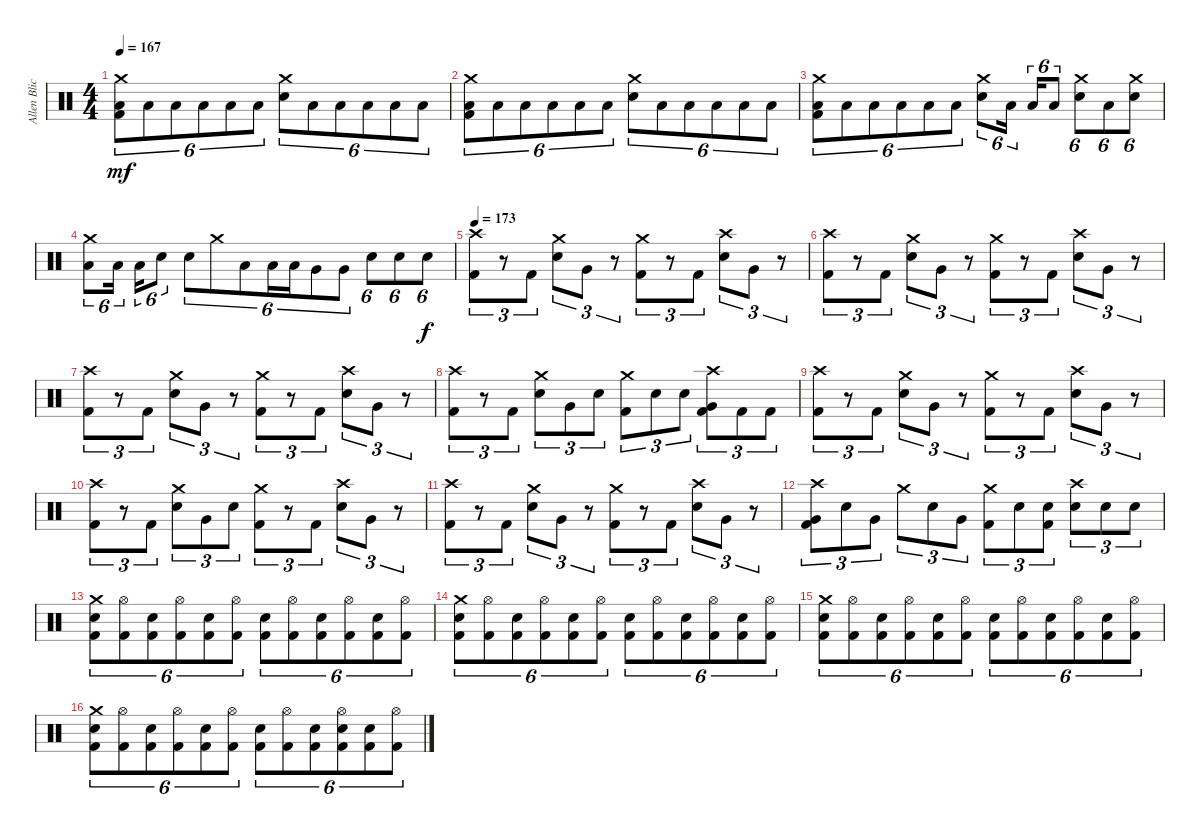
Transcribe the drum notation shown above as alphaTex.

\track ("Allen Blickle" "Allen Blic") {instrument percussion}
\staff {score}
\articulation defaults
\ts (4 4)
\tempo 167
\clef neutral
\ks c
("Low Floor Tom (hit)" "Kick (hit) 2" "Crash medium (hit)").8{tu (6 4) dy mf} "Low Floor Tom (hit)".8{tu (6 4)} "Low Floor Tom (hit)".8{tu (6 4)} "Low Floor Tom (hit)".8{tu (6 4)} "Low Floor Tom (hit)".8{tu (6 4)} "Low Floor Tom (hit)".8{tu (6 4)} ("Electric Snare (hit)" "Crash medium (hit)").8{tu (6 4)} "Low Floor Tom (hit)".8{tu (6 4)} "Low Floor Tom (hit)".8{tu (6 4)} "Low Floor Tom (hit)".8{tu (6 4)} "Low Floor Tom (hit)".8{tu (6 4)} "Low Floor Tom (hit)".8{tu (6 4)} |
("Low Floor Tom (hit)" "Kick (hit) 2" "Crash medium (hit)").8{tu (6 4)} "Low Floor Tom (hit)".8{tu (6 4)} "Low Floor Tom (hit)".8{tu (6 4)} "Low Floor Tom (hit)".8{tu (6 4)} "Low Floor Tom (hit)".8{tu (6 4)} "Low Floor Tom (hit)".8{tu (6 4)} ("Electric Snare (hit)" "Crash medium (hit)").8{tu (6 4)} "Low Floor Tom (hit)".8{tu (6 4)} "Low Floor Tom (hit)".8{tu (6 4)} "Low Floor Tom (hit)".8{tu (6 4)} "Low Floor Tom (hit)".8{tu (6 4)} "Low Floor Tom (hit)".8{tu (6 4)} |
("Low Floor Tom (hit)" "Kick (hit) 2" "Crash medium (hit)").8{tu (6 4)} "Low Floor Tom (hit)".8{tu (6 4)} "Low Floor Tom (hit)".8{tu (6 4)} "Low Floor Tom (hit)".8{tu (6 4)} "Low Floor Tom (hit)".8{tu (6 4)} "Low Floor Tom (hit)".8{tu (6 4)} ("Electric Snare (hit)" "Crash medium (hit)").8{tu (6 4)} "Low Floor Tom (hit)".16{tu (6 4) beam splitsecondary} "Low Floor Tom (hit)".16{tu (6 4)} "Low Floor Tom (hit)".8{tu (6 4)} ("Electric Snare (hit)" "Crash medium (hit)").8{tu (6 4)} "Low Floor Tom (hit)".8{tu (6 4)} ("Electric Snare (hit)" "Crash medium (hit)").8{tu (6 4)} |
("Low Floor Tom (hit)" "Crash medium (hit)").8{tu (6 4)} "Low Floor Tom (hit)".16{tu (6 4) beam splitsecondary} "Low Floor Tom (hit)".16{tu (6 4)} "Electric Snare (hit)".8{tu (6 4)} "Electric Snare (hit)".8{tu (6 4)} "Crash medium (hit)".8{tu (6 4)} "Low Tom (hit)".8{tu (6 4)} "Low Tom (hit)".16{tu (6 4)} "Low Tom (hit)".16{tu (6 4)} "Very Low Tom (hit)".8{tu (6 4)} "Very Low Tom (hit)".8{tu (6 4)} "Electric Snare (hit)".8{tu (6 4)} "Electric Snare (hit)".8{tu (6 4)} "Electric Snare (hit)".8{tu (6 4) dy f} |
\tempo 173
("Crash high (hit)" "Kick (hit) 2").8{tu (3 2)} r.8{tu (3 2)} "Kick (hit) 2".8{tu (3 2)} ("Electric Snare (hit)" "Crash medium (hit)").8{tu (3 2)} "Very Low Tom (hit)".8{tu (3 2)} r.8{tu (3 2)} ("Crash medium (hit)" "Kick (hit) 2").8{tu (3 2)} r.8{tu (3 2)} "Kick (hit) 2".8{tu (3 2)} ("Electric Snare (hit)" "Crash high (hit)").8{tu (3 2)} "Very Low Tom (hit)".8{tu (3 2)} r.8{tu (3 2)} |
("Crash high (hit)" "Kick (hit) 2").8{tu (3 2)} r.8{tu (3 2)} "Kick (hit) 2".8{tu (3 2)} ("Electric Snare (hit)" "Crash medium (hit)").8{tu (3 2)} "Very Low Tom (hit)".8{tu (3 2)} r.8{tu (3 2)} ("Crash medium (hit)" "Kick (hit) 2").8{tu (3 2)} r.8{tu (3 2)} "Kick (hit) 2".8{tu (3 2)} ("Electric Snare (hit)" "Crash high (hit)").8{tu (3 2)} "Very Low Tom (hit)".8{tu (3 2)} r.8{tu (3 2)} |
("Crash high (hit)" "Kick (hit) 2").8{tu (3 2)} r.8{tu (3 2)} "Kick (hit) 2".8{tu (3 2)} ("Electric Snare (hit)" "Crash medium (hit)").8{tu (3 2)} "Very Low Tom (hit)".8{tu (3 2)} r.8{tu (3 2)} ("Crash medium (hit)" "Kick (hit) 2").8{tu (3 2)} r.8{tu (3 2)} "Kick (hit) 2".8{tu (3 2)} ("Electric Snare (hit)" "Crash high (hit)").8{tu (3 2)} "Very Low Tom (hit)".8{tu (3 2)} r.8{tu (3 2)} |
("Crash high (hit)" "Kick (hit) 2").8{tu (3 2)} r.8{tu (3 2)} "Kick (hit) 2".8{tu (3 2)} ("Electric Snare (hit)" "Crash medium (hit)").8{tu (3 2)} "Very Low Tom (hit)".8{tu (3 2)} "Electric Snare (hit)".8{tu (3 2)} ("Crash medium (hit)" "Kick (hit) 2").8{tu (3 2)} "Electric Snare (hit)".8{tu (3 2)} "Electric Snare (hit)".8{tu (3 2)} ("Very Low Tom (hit)" "Kick (hit) 2" "Crash high (hit)").8{tu (3 2)} "Kick (hit) 2".8{tu (3 2)} "Kick (hit) 2".8{tu (3 2)} |
("Crash high (hit)" "Kick (hit) 2").8{tu (3 2)} r.8{tu (3 2)} "Kick (hit) 2".8{tu (3 2)} ("Electric Snare (hit)" "Crash medium (hit)").8{tu (3 2)} "Very Low Tom (hit)".8{tu (3 2)} r.8{tu (3 2)} ("Crash medium (hit)" "Kick (hit) 2").8{tu (3 2)} r.8{tu (3 2)} "Kick (hit) 2".8{tu (3 2)} ("Electric Snare (hit)" "Crash high (hit)").8{tu (3 2)} "Very Low Tom (hit)".8{tu (3 2)} r.8{tu (3 2)} |
("Crash high (hit)" "Kick (hit) 2").8{tu (3 2)} r.8{tu (3 2)} "Kick (hit) 2".8{tu (3 2)} ("Electric Snare (hit)" "Crash medium (hit)").8{tu (3 2)} "Very Low Tom (hit)".8{tu (3 2)} "Electric Snare (hit)".8{tu (3 2)} ("Crash medium (hit)" "Kick (hit) 2").8{tu (3 2)} r.8{tu (3 2)} "Kick (hit) 2".8{tu (3 2)} ("Electric Snare (hit)" "Crash high (hit)").8{tu (3 2)} "Very Low Tom (hit)".8{tu (3 2)} r.8{tu (3 2)} |
("Crash high (hit)" "Kick (hit) 2").8{tu (3 2)} r.8{tu (3 2)} "Kick (hit) 2".8{tu (3 2)} ("Electric Snare (hit)" "Crash medium (hit)").8{tu (3 2)} "Very Low Tom (hit)".8{tu (3 2)} r.8{tu (3 2)} ("Crash medium (hit)" "Kick (hit) 2").8{tu (3 2)} r.8{tu (3 2)} "Kick (hit) 2".8{tu (3 2)} ("Electric Snare (hit)" "Crash high (hit)").8{tu (3 2)} "Very Low Tom (hit)".8{tu (3 2)} r.8{tu (3 2)} |
("Crash high (hit)" "Very Low Tom (hit)" "Kick (hit) 2").8{tu (3 2)} "Electric Snare (hit)".8{tu (3 2)} "Very Low Tom (hit)".8{tu (3 2)} "Crash medium (hit)".8{tu (3 2)} "Electric Snare (hit)".8{tu (3 2)} "Very Low Tom (hit)".8{tu (3 2)} ("Crash medium (hit)" "Kick (hit) 2").8{tu (3 2)} "Electric Snare (hit)".8{tu (3 2)} ("Electric Snare (hit)" "Kick (hit) 2").8{tu (3 2)} ("Electric Snare (hit)" "Crash high (hit)").8{tu (3 2)} "Electric Snare (hit)".8{tu (3 2)} "Electric Snare (hit)".8{tu (3 2)} |
("Kick (hit) 2" "Electric Snare (hit)" "Crash medium (hit)").8{tu (6 4)} ("Kick (hit) 2" "Hi-Hat (open)").8{tu (6 4)} ("Kick (hit) 2" "Electric Snare (hit)").8{tu (6 4)} ("Kick (hit) 2" "Hi-Hat (open)").8{tu (6 4)} ("Kick (hit) 2" "Electric Snare (hit)").8{tu (6 4)} ("Kick (hit) 2" "Hi-Hat (open)").8{tu (6 4)} ("Kick (hit) 2" "Electric Snare (hit)").8{tu (6 4)} ("Kick (hit) 2" "Hi-Hat (open)").8{tu (6 4)} ("Kick (hit) 2" "Electric Snare (hit)").8{tu (6 4)} ("Kick (hit) 2" "Hi-Hat (open)").8{tu (6 4)} ("Kick (hit) 2" "Electric Snare (hit)").8{tu (6 4)} ("Kick (hit) 2" "Hi-Hat (open)").8{tu (6 4)} |
("Kick (hit) 2" "Electric Snare (hit)" "Crash medium (hit)").8{tu (6 4)} ("Kick (hit) 2" "Hi-Hat (open)").8{tu (6 4)} ("Kick (hit) 2" "Electric Snare (hit)").8{tu (6 4)} ("Kick (hit) 2" "Hi-Hat (open)").8{tu (6 4)} ("Kick (hit) 2" "Electric Snare (hit)").8{tu (6 4)} ("Kick (hit) 2" "Hi-Hat (open)").8{tu (6 4)} ("Kick (hit) 2" "Electric Snare (hit)").8{tu (6 4)} ("Kick (hit) 2" "Hi-Hat (open)").8{tu (6 4)} ("Kick (hit) 2" "Electric Snare (hit)").8{tu (6 4)} ("Kick (hit) 2" "Hi-Hat (open)").8{tu (6 4)} ("Kick (hit) 2" "Electric Snare (hit)").8{tu (6 4)} ("Kick (hit) 2" "Hi-Hat (open)").8{tu (6 4)} |
("Kick (hit) 2" "Electric Snare (hit)" "Crash medium (hit)").8{tu (6 4)} ("Kick (hit) 2" "Hi-Hat (open)").8{tu (6 4)} ("Kick (hit) 2" "Electric Snare (hit)").8{tu (6 4)} ("Kick (hit) 2" "Hi-Hat (open)").8{tu (6 4)} ("Kick (hit) 2" "Electric Snare (hit)").8{tu (6 4)} ("Kick (hit) 2" "Hi-Hat (open)").8{tu (6 4)} ("Kick (hit) 2" "Electric Snare (hit)").8{tu (6 4)} ("Kick (hit) 2" "Hi-Hat (open)").8{tu (6 4)} ("Kick (hit) 2" "Electric Snare (hit)").8{tu (6 4)} ("Kick (hit) 2" "Hi-Hat (open)").8{tu (6 4)} ("Kick (hit) 2" "Electric Snare (hit)").8{tu (6 4)} ("Kick (hit) 2" "Hi-Hat (open)").8{tu (6 4)} |
("Kick (hit) 2" "Electric Snare (hit)" "Crash medium (hit)").8{tu (6 4)} ("Kick (hit) 2" "Hi-Hat (open)").8{tu (6 4)} ("Kick (hit) 2" "Electric Snare (hit)").8{tu (6 4)} ("Kick (hit) 2" "Hi-Hat (open)").8{tu (6 4)} ("Kick (hit) 2" "Electric Snare (hit)").8{tu (6 4)} ("Kick (hit) 2" "Hi-Hat (open)").8{tu (6 4)} ("Kick (hit) 2" "Electric Snare (hit)").8{tu (6 4)} ("Kick (hit) 2" "Hi-Hat (open)").8{tu (6 4)} ("Kick (hit) 2" "Electric Snare (hit)").8{tu (6 4)} ("Kick (hit) 2" "Electric Snare (hit)" "Hi-Hat (open)").8{tu (6 4)} ("Kick (hit) 2" "Electric Snare (hit)").8{tu (6 4)} ("Kick (hit) 2" "Hi-Hat (open)").8{tu (6 4)}
